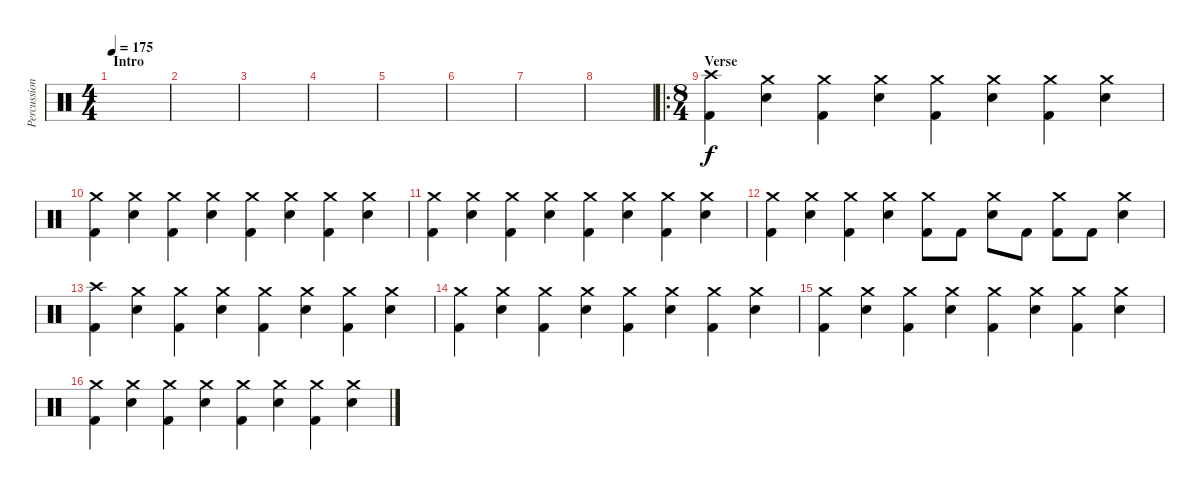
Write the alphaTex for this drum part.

\track ("Percussion" "Percussion") {instrument percussion}
\staff {score}
\articulation defaults
\ts (4 4)
\section ("" "Intro")
\tempo 175
\clef neutral
\ks c
|
|
|
|
|
|
|
|
\ro
\ts (8 4)
\section ("" "Verse")
("Kick (hit) 2" "Crash high (hit)").4 ("Electric Snare (hit)" "Crash medium (hit)").4 ("Kick (hit) 2" "Crash medium (hit)").4 ("Electric Snare (hit)" "Crash medium (hit)").4 ("Kick (hit) 2" "Crash medium (hit)").4 ("Electric Snare (hit)" "Crash medium (hit)").4 ("Kick (hit) 2" "Crash medium (hit)").4 ("Electric Snare (hit)" "Crash medium (hit)").4 |
("Kick (hit) 2" "Crash medium (hit)").4 ("Electric Snare (hit)" "Crash medium (hit)").4 ("Kick (hit) 2" "Crash medium (hit)").4 ("Electric Snare (hit)" "Crash medium (hit)").4 ("Kick (hit) 2" "Crash medium (hit)").4 ("Electric Snare (hit)" "Crash medium (hit)").4 ("Kick (hit) 2" "Crash medium (hit)").4 ("Electric Snare (hit)" "Crash medium (hit)").4 |
("Kick (hit) 2" "Crash medium (hit)").4 ("Electric Snare (hit)" "Crash medium (hit)").4 ("Kick (hit) 2" "Crash medium (hit)").4 ("Electric Snare (hit)" "Crash medium (hit)").4 ("Kick (hit) 2" "Crash medium (hit)").4 ("Electric Snare (hit)" "Crash medium (hit)").4 ("Kick (hit) 2" "Crash medium (hit)").4 ("Electric Snare (hit)" "Crash medium (hit)").4 |
("Kick (hit) 2" "Crash medium (hit)").4 ("Electric Snare (hit)" "Crash medium (hit)").4 ("Kick (hit) 2" "Crash medium (hit)").4 ("Electric Snare (hit)" "Crash medium (hit)").4 ("Kick (hit) 2" "Crash medium (hit)").8 "Kick (hit) 2".8 ("Electric Snare (hit)" "Crash medium (hit)").8 "Kick (hit) 2".8 ("Kick (hit) 2" "Crash medium (hit)").8 "Kick (hit) 2".8 ("Electric Snare (hit)" "Crash medium (hit)").4 |
("Kick (hit) 2" "Crash high (hit)").4 ("Electric Snare (hit)" "Crash medium (hit)").4 ("Kick (hit) 2" "Crash medium (hit)").4 ("Electric Snare (hit)" "Crash medium (hit)").4 ("Kick (hit) 2" "Crash medium (hit)").4 ("Electric Snare (hit)" "Crash medium (hit)").4 ("Kick (hit) 2" "Crash medium (hit)").4 ("Electric Snare (hit)" "Crash medium (hit)").4 |
("Kick (hit) 2" "Crash medium (hit)").4 ("Electric Snare (hit)" "Crash medium (hit)").4 ("Kick (hit) 2" "Crash medium (hit)").4 ("Electric Snare (hit)" "Crash medium (hit)").4 ("Kick (hit) 2" "Crash medium (hit)").4 ("Electric Snare (hit)" "Crash medium (hit)").4 ("Kick (hit) 2" "Crash medium (hit)").4 ("Electric Snare (hit)" "Crash medium (hit)").4 |
("Kick (hit) 2" "Crash medium (hit)").4 ("Electric Snare (hit)" "Crash medium (hit)").4 ("Kick (hit) 2" "Crash medium (hit)").4 ("Electric Snare (hit)" "Crash medium (hit)").4 ("Kick (hit) 2" "Crash medium (hit)").4 ("Electric Snare (hit)" "Crash medium (hit)").4 ("Kick (hit) 2" "Crash medium (hit)").4 ("Electric Snare (hit)" "Crash medium (hit)").4 |
("Kick (hit) 2" "Crash medium (hit)").4 ("Electric Snare (hit)" "Crash medium (hit)").4 ("Kick (hit) 2" "Crash medium (hit)").4 ("Electric Snare (hit)" "Crash medium (hit)").4 ("Kick (hit) 2" "Crash medium (hit)").4 ("Electric Snare (hit)" "Crash medium (hit)").4 ("Kick (hit) 2" "Crash medium (hit)").4 ("Electric Snare (hit)" "Crash medium (hit)").4
